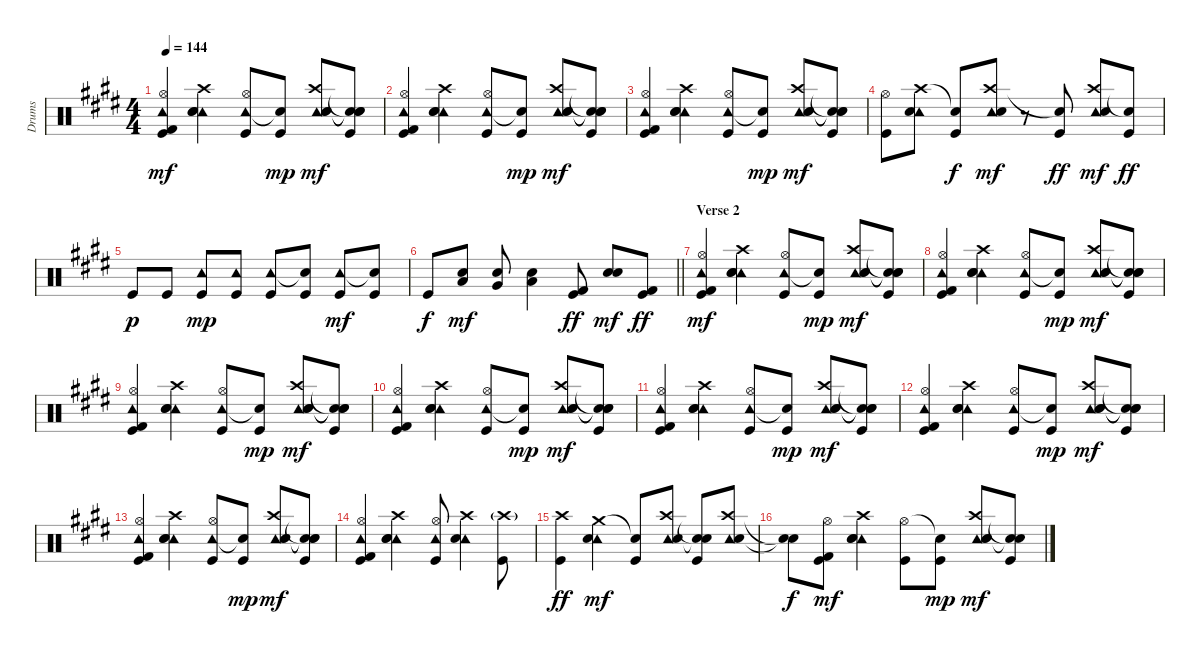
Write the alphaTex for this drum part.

\track ("Drums" "Drums") {instrument percussion}
\staff {score}
\articulation defaults
\ts (4 4)
\tempo 144
\clef neutral
\ks c#minor
("Tambourine (hit)" "Hi-Hat (open)" "Kick (hit) 2" "Kick (hit)").4{dy mf} ("Crash high (hit)" "Tambourine (hit)" "Snare (hit) 2" "Electric Snare (hit)").4 ("Tambourine (hit)" "Hi-Hat (open)" "Kick (hit)").8 ("Snare (hit)"{t} "Kick (hit)").8{dy mp} ("Crash high (hit)" "Tambourine (hit)" "Snare (hit) 2" "Electric Snare (hit)").8{dy mf} ("Snare (hit)"{t} "Snare (hit)"{t} "Snare (hit)"{t} "Kick (hit)").8 |
\ks e
("Tambourine (hit)" "Hi-Hat (open)" "Kick (hit) 2" "Kick (hit)").4 ("Crash high (hit)" "Tambourine (hit)" "Snare (hit) 2" "Electric Snare (hit)").4 ("Tambourine (hit)" "Hi-Hat (open)" "Kick (hit)").8 ("Snare (hit)"{t} "Kick (hit)").8{dy mp} ("Crash high (hit)" "Tambourine (hit)" "Snare (hit) 2" "Electric Snare (hit)").8{dy mf} ("Snare (hit)"{t} "Snare (hit)"{t} "Snare (hit)"{t} "Kick (hit)").8 |
\ks c#minor
("Tambourine (hit)" "Hi-Hat (open)" "Kick (hit) 2" "Kick (hit)").4 ("Crash high (hit)" "Tambourine (hit)" "Snare (hit) 2" "Electric Snare (hit)").4 ("Tambourine (hit)" "Hi-Hat (open)" "Kick (hit)").8 ("Snare (hit)"{t} "Kick (hit)").8{dy mp} ("Crash high (hit)" "Tambourine (hit)" "Snare (hit) 2" "Electric Snare (hit)").8{dy mf} ("Snare (hit)"{t} "Snare (hit)"{t} "Snare (hit)"{t} "Kick (hit)").8 |
\ks e
("Hi-Hat (open)" "Kick (hit)").8 ("Crash high (hit)" "Tambourine (hit)" "Snare (hit) 2").8 ("Snare (hit)"{t} "Kick (hit)").8{dy f} ("Crash high (hit)" "Tambourine (hit)" "Snare (hit) 2").8{dy mf} r.8 ("Snare (hit)"{t} "Kick (hit)").8{dy ff} ("Crash high (hit)" "Tambourine (hit)" "Snare (hit) 2").8{dy mf} ("Snare (hit)"{t} "Kick (hit)").8{dy ff} |
\ks c#minor "Kick (hit)".8{dy p} "Kick (hit)".8
("Tambourine (hit)" "Kick (hit)").8{dy mp} ("Tambourine (hit)" "Kick (hit)").8 ("Tambourine (hit)" "Kick (hit)").8 ("Snare (hit)"{t} "Kick (hit)").8 ("Tambourine (hit)" "Kick (hit)").8{dy mf} ("Snare (hit)"{t} "Kick (hit)").8 |
\barLineRight lightlight "Kick (hit)".8{dy f}
("Low Tom (hit)" "Snare (hit) 2").8{dy mf} ("Very Low Tom (hit)" "Snare (hit) 2").8 ("Low Floor Tom (hit)" "Snare (hit) 2").4 ("Kick (hit) 2" "Kick (hit)").8{dy ff} ("Snare (hit) 2" "Electric Snare (hit)").8{dy mf} ("Kick (hit) 2" "Kick (hit)").8{dy ff} |
\section ("" "Verse 2")
\ks e
("Tambourine (hit)" "Hi-Hat (open)" "Kick (hit) 2" "Kick (hit)").4{dy mf} ("Crash high (hit)" "Tambourine (hit)" "Snare (hit) 2" "Electric Snare (hit)").4 ("Tambourine (hit)" "Hi-Hat (open)" "Kick (hit)").8 ("Snare (hit)"{t} "Kick (hit)").8{dy mp} ("Crash high (hit)" "Tambourine (hit)" "Snare (hit) 2" "Electric Snare (hit)").8{dy mf} ("Snare (hit)"{t} "Snare (hit)"{t} "Snare (hit)"{t} "Kick (hit)").8 |
\ks c#minor
("Tambourine (hit)" "Hi-Hat (open)" "Kick (hit) 2" "Kick (hit)").4 ("Crash high (hit)" "Tambourine (hit)" "Snare (hit) 2" "Electric Snare (hit)").4 ("Tambourine (hit)" "Hi-Hat (open)" "Kick (hit)").8 ("Snare (hit)"{t} "Kick (hit)").8{dy mp} ("Crash high (hit)" "Tambourine (hit)" "Snare (hit) 2" "Electric Snare (hit)").8{dy mf} ("Snare (hit)"{t} "Snare (hit)"{t} "Snare (hit)"{t} "Kick (hit)").8 |
("Tambourine (hit)" "Hi-Hat (open)" "Kick (hit) 2" "Kick (hit)").4 ("Crash high (hit)" "Tambourine (hit)" "Snare (hit) 2" "Electric Snare (hit)").4 ("Tambourine (hit)" "Hi-Hat (open)" "Kick (hit)").8 ("Snare (hit)"{t} "Kick (hit)").8{dy mp} ("Crash high (hit)" "Tambourine (hit)" "Snare (hit) 2" "Electric Snare (hit)").8{dy mf} ("Snare (hit)"{t} "Snare (hit)"{t} "Snare (hit)"{t} "Kick (hit)").8 |
("Tambourine (hit)" "Hi-Hat (open)" "Kick (hit) 2" "Kick (hit)").4 ("Crash high (hit)" "Tambourine (hit)" "Snare (hit) 2" "Electric Snare (hit)").4 ("Tambourine (hit)" "Hi-Hat (open)" "Kick (hit)").8 ("Snare (hit)"{t} "Kick (hit)").8{dy mp} ("Crash high (hit)" "Tambourine (hit)" "Snare (hit) 2" "Electric Snare (hit)").8{dy mf} ("Snare (hit)"{t} "Snare (hit)"{t} "Snare (hit)"{t} "Kick (hit)").8 |
\ks e
("Tambourine (hit)" "Hi-Hat (open)" "Kick (hit) 2" "Kick (hit)").4 ("Crash high (hit)" "Tambourine (hit)" "Snare (hit) 2" "Electric Snare (hit)").4 ("Tambourine (hit)" "Hi-Hat (open)" "Kick (hit)").8 ("Snare (hit)"{t} "Kick (hit)").8{dy mp} ("Crash high (hit)" "Tambourine (hit)" "Snare (hit) 2" "Electric Snare (hit)").8{dy mf} ("Snare (hit)"{t} "Snare (hit)"{t} "Snare (hit)"{t} "Kick (hit)").8 |
\ks c#minor
("Tambourine (hit)" "Hi-Hat (open)" "Kick (hit) 2" "Kick (hit)").4 ("Crash high (hit)" "Tambourine (hit)" "Snare (hit) 2" "Electric Snare (hit)").4 ("Tambourine (hit)" "Hi-Hat (open)" "Kick (hit)").8 ("Snare (hit)"{t} "Kick (hit)").8{dy mp} ("Crash high (hit)" "Tambourine (hit)" "Snare (hit) 2" "Electric Snare (hit)").8{dy mf} ("Snare (hit)"{t} "Snare (hit)"{t} "Snare (hit)"{t} "Kick (hit)").8 |
("Tambourine (hit)" "Hi-Hat (open)" "Kick (hit) 2" "Kick (hit)").4 ("Crash high (hit)" "Tambourine (hit)" "Snare (hit) 2" "Electric Snare (hit)").4 ("Tambourine (hit)" "Hi-Hat (open)" "Kick (hit)").8 ("Snare (hit)"{t} "Kick (hit)").8{dy mp} ("Crash high (hit)" "Tambourine (hit)" "Snare (hit) 2" "Electric Snare (hit)").8{dy mf} ("Snare (hit)"{t} "Snare (hit)"{t} "Snare (hit)"{t} "Kick (hit)").8 |
("Tambourine (hit)" "Hi-Hat (open)" "Kick (hit) 2" "Kick (hit)").4 ("Crash high (hit)" "Tambourine (hit)" "Snare (hit) 2" "Electric Snare (hit)").4 ("Tambourine (hit)" "Hi-Hat (open)" "Kick (hit)").8 ("Crash high (hit)" "Tambourine (hit)" "Snare (hit) 2").4 ("Crash high (hit)"{g} "Kick (hit)").8 |
\ks e
("Crash high (hit)" "Kick (hit)").4{dy ff} ("Crash medium (hit)" "Tambourine (hit)" "Snare (hit) 2").4{dy mf} ("Snare (hit)"{t} "Kick (hit)").8 ("Crash high (hit)" "Tambourine (hit)" "Snare (hit) 2").8 ("Snare (hit)"{t} "Snare (hit)"{t} "Kick (hit)").8 ("Crash high (hit)" "Tambourine (hit)" "Snare (hit) 2").8 |
\ks c#minor
("Snare (hit)"{t} "Snare (hit)"{t}).8{dy f} ("Hi-Hat (open)" "Kick (hit) 2" "Kick (hit)").8{dy mf} ("Crash high (hit)" "Tambourine (hit)" "Snare (hit) 2" "Electric Snare (hit)").4 ("Hi-Hat (open)" "Kick (hit)").8 ("Snare (hit)"{t} "Kick (hit)").8{dy mp} ("Crash high (hit)" "Tambourine (hit)" "Snare (hit) 2" "Electric Snare (hit)").8{dy mf} ("Snare (hit)"{t} "Snare (hit)"{t} "Kick (hit)").8
